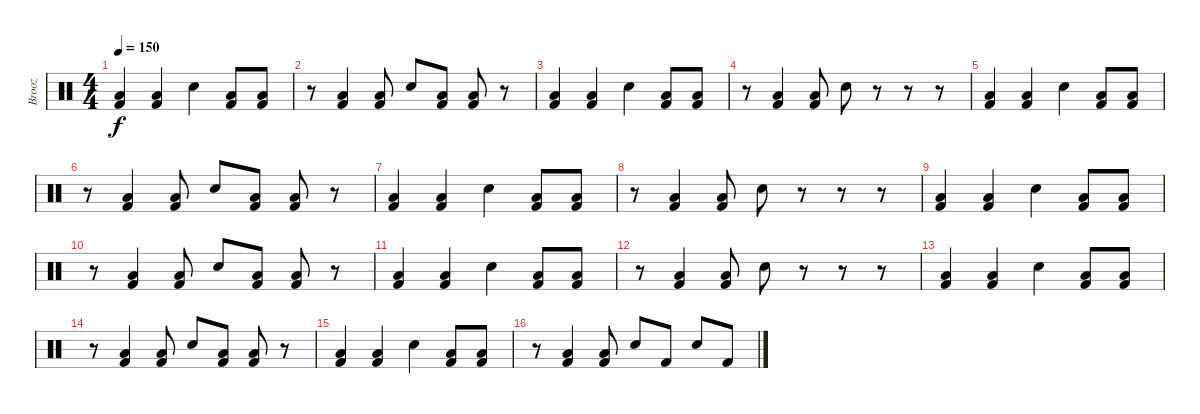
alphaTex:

\track ("Brooz" "Brooz") {instrument percussion}
\staff {score}
\articulation defaults
\ts (4 4)
\tempo 150
\clef neutral
\ks c
("Low Floor Tom (hit)" "Kick (hit) 2").4{dy f} ("Low Floor Tom (hit)" "Kick (hit) 2").4 "Electric Snare (hit)".4 ("Low Floor Tom (hit)" "Kick (hit) 2").8 ("Low Floor Tom (hit)" "Kick (hit) 2").8 |
r.8 ("Low Floor Tom (hit)" "Kick (hit) 2").4 ("Low Floor Tom (hit)" "Kick (hit) 2").8 "Electric Snare (hit)".8 ("Low Floor Tom (hit)" "Kick (hit) 2").8 ("Low Floor Tom (hit)" "Kick (hit) 2").8 r.8 |
("Low Floor Tom (hit)" "Kick (hit) 2").4 ("Low Floor Tom (hit)" "Kick (hit) 2").4 "Electric Snare (hit)".4 ("Low Floor Tom (hit)" "Kick (hit) 2").8 ("Low Floor Tom (hit)" "Kick (hit) 2").8 |
r.8 ("Low Floor Tom (hit)" "Kick (hit) 2").4 ("Low Floor Tom (hit)" "Kick (hit) 2").8 "Electric Snare (hit)".8 r.8 r.8 r.8 |
("Low Floor Tom (hit)" "Kick (hit) 2").4 ("Low Floor Tom (hit)" "Kick (hit) 2").4 "Electric Snare (hit)".4 ("Low Floor Tom (hit)" "Kick (hit) 2").8 ("Low Floor Tom (hit)" "Kick (hit) 2").8 |
r.8 ("Low Floor Tom (hit)" "Kick (hit) 2").4 ("Low Floor Tom (hit)" "Kick (hit) 2").8 "Electric Snare (hit)".8 ("Low Floor Tom (hit)" "Kick (hit) 2").8 ("Low Floor Tom (hit)" "Kick (hit) 2").8 r.8 |
("Low Floor Tom (hit)" "Kick (hit) 2").4 ("Low Floor Tom (hit)" "Kick (hit) 2").4 "Electric Snare (hit)".4 ("Low Floor Tom (hit)" "Kick (hit) 2").8 ("Low Floor Tom (hit)" "Kick (hit) 2").8 |
r.8 ("Low Floor Tom (hit)" "Kick (hit) 2").4 ("Low Floor Tom (hit)" "Kick (hit) 2").8 "Electric Snare (hit)".8 r.8 r.8 r.8 |
("Low Floor Tom (hit)" "Kick (hit) 2").4 ("Low Floor Tom (hit)" "Kick (hit) 2").4 "Electric Snare (hit)".4 ("Low Floor Tom (hit)" "Kick (hit) 2").8 ("Low Floor Tom (hit)" "Kick (hit) 2").8 |
r.8 ("Low Floor Tom (hit)" "Kick (hit) 2").4 ("Low Floor Tom (hit)" "Kick (hit) 2").8 "Electric Snare (hit)".8 ("Low Floor Tom (hit)" "Kick (hit) 2").8 ("Low Floor Tom (hit)" "Kick (hit) 2").8 r.8 |
("Low Floor Tom (hit)" "Kick (hit) 2").4 ("Low Floor Tom (hit)" "Kick (hit) 2").4 "Electric Snare (hit)".4 ("Low Floor Tom (hit)" "Kick (hit) 2").8 ("Low Floor Tom (hit)" "Kick (hit) 2").8 |
r.8 ("Low Floor Tom (hit)" "Kick (hit) 2").4 ("Low Floor Tom (hit)" "Kick (hit) 2").8 "Electric Snare (hit)".8 r.8 r.8 r.8 |
("Low Floor Tom (hit)" "Kick (hit) 2").4 ("Low Floor Tom (hit)" "Kick (hit) 2").4 "Electric Snare (hit)".4 ("Low Floor Tom (hit)" "Kick (hit) 2").8 ("Low Floor Tom (hit)" "Kick (hit) 2").8 |
r.8 ("Low Floor Tom (hit)" "Kick (hit) 2").4 ("Low Floor Tom (hit)" "Kick (hit) 2").8 "Electric Snare (hit)".8 ("Low Floor Tom (hit)" "Kick (hit) 2").8 ("Low Floor Tom (hit)" "Kick (hit) 2").8 r.8 |
("Low Floor Tom (hit)" "Kick (hit) 2").4 ("Low Floor Tom (hit)" "Kick (hit) 2").4 "Electric Snare (hit)".4 ("Low Floor Tom (hit)" "Kick (hit) 2").8 ("Low Floor Tom (hit)" "Kick (hit) 2").8 |
r.8 ("Low Floor Tom (hit)" "Kick (hit) 2").4 ("Low Floor Tom (hit)" "Kick (hit) 2").8 "Electric Snare (hit)".8 "Kick (hit) 2".8 "Electric Snare (hit)".8 "Kick (hit) 2".8
